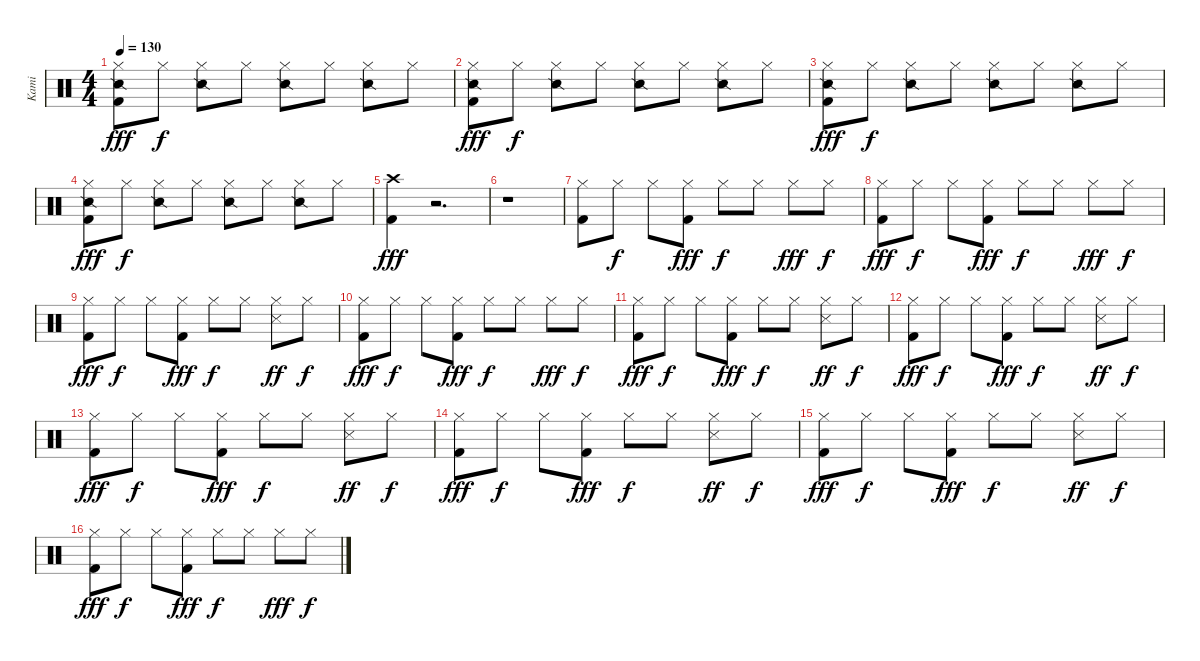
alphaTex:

\track ("Kami" "Kami") {instrument percussion}
\staff {score}
\articulation defaults
\ts (4 4)
\tempo 130
\clef neutral
\ks c
("Hi-Hat (closed)" "Snare (side stick) 2" "Kick (hit) 2").8{dy fff} "Hi-Hat (closed)".8{dy f} ("Hi-Hat (closed)" "Snare (side stick) 2").8 "Hi-Hat (closed)".8 ("Hi-Hat (closed)" "Snare (side stick) 2").8 "Hi-Hat (closed)".8 ("Hi-Hat (closed)" "Snare (side stick) 2").8 "Hi-Hat (closed)".8 |
("Hi-Hat (closed)" "Snare (side stick) 2" "Kick (hit) 2").8{dy fff} "Hi-Hat (closed)".8{dy f} ("Hi-Hat (closed)" "Snare (side stick) 2").8 "Hi-Hat (closed)".8 ("Hi-Hat (closed)" "Snare (side stick) 2").8 "Hi-Hat (closed)".8 ("Hi-Hat (closed)" "Snare (side stick) 2").8 "Hi-Hat (closed)".8 |
("Hi-Hat (closed)" "Snare (side stick) 2" "Kick (hit) 2").8{dy fff} "Hi-Hat (closed)".8{dy f} ("Hi-Hat (closed)" "Snare (side stick) 2").8 "Hi-Hat (closed)".8 ("Hi-Hat (closed)" "Snare (side stick) 2").8 "Hi-Hat (closed)".8 ("Hi-Hat (closed)" "Snare (side stick) 2").8 "Hi-Hat (closed)".8 |
("Hi-Hat (closed)" "Snare (side stick) 2" "Kick (hit) 2").8{dy fff} "Hi-Hat (closed)".8{dy f} ("Hi-Hat (closed)" "Snare (side stick) 2").8 "Hi-Hat (closed)".8 ("Hi-Hat (closed)" "Snare (side stick) 2").8 "Hi-Hat (closed)".8 ("Hi-Hat (closed)" "Snare (side stick) 2").8 "Hi-Hat (closed)".8 |
("Crash high (hit)" "Kick (hit) 2").4{dy fff} r.2{d} |
r.1 |
("Hi-Hat (closed)" "Kick (hit) 2").8 "Hi-Hat (closed)".8{dy f} "Hi-Hat (closed)".8 ("Hi-Hat (closed)" "Kick (hit) 2").8{dy fff} "Hi-Hat (closed)".8{dy f} "Hi-Hat (closed)".8 "Hi-Hat (closed)".8{dy fff} "Hi-Hat (closed)".8{dy f} |
("Hi-Hat (closed)" "Kick (hit) 2").8{dy fff} "Hi-Hat (closed)".8{dy f} "Hi-Hat (closed)".8 ("Hi-Hat (closed)" "Kick (hit) 2").8{dy fff} "Hi-Hat (closed)".8{dy f} "Hi-Hat (closed)".8 "Hi-Hat (closed)".8{dy fff} "Hi-Hat (closed)".8{dy f} |
("Hi-Hat (closed)" "Kick (hit) 2").8{dy fff} "Hi-Hat (closed)".8{dy f} "Hi-Hat (closed)".8 ("Hi-Hat (closed)" "Kick (hit) 2").8{dy fff} "Hi-Hat (closed)".8{dy f} "Hi-Hat (closed)".8 ("Hi-Hat (closed)" "Snare (side stick) 3").8{dy ff} "Hi-Hat (closed)".8{dy f} |
("Hi-Hat (closed)" "Kick (hit) 2").8{dy fff} "Hi-Hat (closed)".8{dy f} "Hi-Hat (closed)".8 ("Hi-Hat (closed)" "Kick (hit) 2").8{dy fff} "Hi-Hat (closed)".8{dy f} "Hi-Hat (closed)".8 "Hi-Hat (closed)".8{dy fff} "Hi-Hat (closed)".8{dy f} |
("Hi-Hat (closed)" "Kick (hit) 2").8{dy fff} "Hi-Hat (closed)".8{dy f} "Hi-Hat (closed)".8 ("Hi-Hat (closed)" "Kick (hit) 2").8{dy fff} "Hi-Hat (closed)".8{dy f} "Hi-Hat (closed)".8 ("Hi-Hat (closed)" "Snare (side stick) 3").8{dy ff} "Hi-Hat (closed)".8{dy f} |
("Hi-Hat (closed)" "Kick (hit) 2").8{dy fff} "Hi-Hat (closed)".8{dy f} "Hi-Hat (closed)".8 ("Hi-Hat (closed)" "Kick (hit) 2").8{dy fff} "Hi-Hat (closed)".8{dy f} "Hi-Hat (closed)".8 ("Hi-Hat (closed)" "Snare (side stick) 3").8{dy ff} "Hi-Hat (closed)".8{dy f} |
("Hi-Hat (closed)" "Kick (hit) 2").8{dy fff} "Hi-Hat (closed)".8{dy f} "Hi-Hat (closed)".8 ("Hi-Hat (closed)" "Kick (hit) 2").8{dy fff} "Hi-Hat (closed)".8{dy f} "Hi-Hat (closed)".8 ("Hi-Hat (closed)" "Snare (side stick) 3").8{dy ff} "Hi-Hat (closed)".8{dy f} |
("Hi-Hat (closed)" "Kick (hit) 2").8{dy fff} "Hi-Hat (closed)".8{dy f} "Hi-Hat (closed)".8 ("Hi-Hat (closed)" "Kick (hit) 2").8{dy fff} "Hi-Hat (closed)".8{dy f} "Hi-Hat (closed)".8 ("Hi-Hat (closed)" "Snare (side stick) 3").8{dy ff} "Hi-Hat (closed)".8{dy f} |
("Hi-Hat (closed)" "Kick (hit) 2").8{dy fff} "Hi-Hat (closed)".8{dy f} "Hi-Hat (closed)".8 ("Hi-Hat (closed)" "Kick (hit) 2").8{dy fff} "Hi-Hat (closed)".8{dy f} "Hi-Hat (closed)".8 ("Hi-Hat (closed)" "Snare (side stick) 3").8{dy ff} "Hi-Hat (closed)".8{dy f} |
("Hi-Hat (closed)" "Kick (hit) 2").8{dy fff} "Hi-Hat (closed)".8{dy f} "Hi-Hat (closed)".8 ("Hi-Hat (closed)" "Kick (hit) 2").8{dy fff} "Hi-Hat (closed)".8{dy f} "Hi-Hat (closed)".8 "Hi-Hat (closed)".8{dy fff} "Hi-Hat (closed)".8{dy f}
